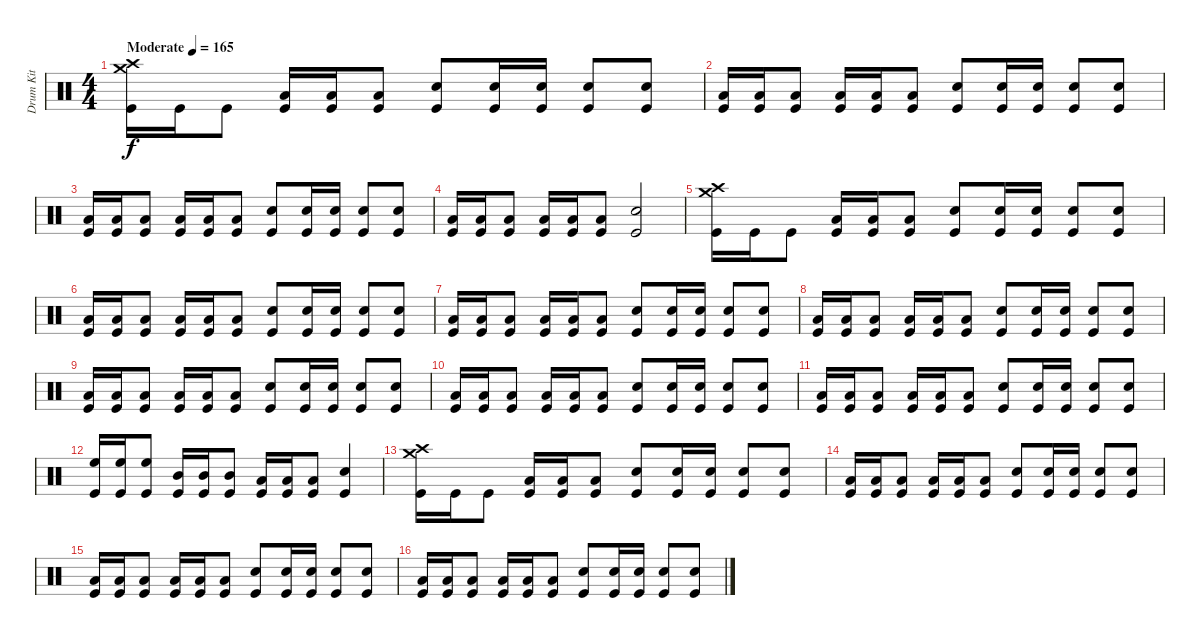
\track ("Drum Kit" "Drum Kit") {instrument percussion}
\staff {score}
\articulation defaults
\ts (4 4)
\tempo (165 "Moderate")
\clef neutral
\ks c
("Crash high (hit)" "Crash medium (hit)" "Kick (hit)").16{dy f} "Kick (hit)".16 "Kick (hit)".8 ("Low Floor Tom (hit)" "Kick (hit)").16 ("Low Floor Tom (hit)" "Kick (hit)").16 ("Low Floor Tom (hit)" "Kick (hit)").8 ("Snare (hit) 2" "Kick (hit)").8 ("Snare (hit) 2" "Kick (hit)").16 ("Snare (hit) 2" "Kick (hit)").16 ("Snare (hit) 2" "Kick (hit)").8 ("Snare (hit) 2" "Kick (hit)").8 |
("Low Floor Tom (hit)" "Kick (hit)").16 ("Low Floor Tom (hit)" "Kick (hit)").16 ("Low Floor Tom (hit)" "Kick (hit)").8 ("Low Floor Tom (hit)" "Kick (hit)").16 ("Low Floor Tom (hit)" "Kick (hit)").16 ("Low Floor Tom (hit)" "Kick (hit)").8 ("Snare (hit) 2" "Kick (hit)").8 ("Snare (hit) 2" "Kick (hit)").16 ("Snare (hit) 2" "Kick (hit)").16 ("Snare (hit) 2" "Kick (hit)").8 ("Snare (hit) 2" "Kick (hit)").8 |
("Low Floor Tom (hit)" "Kick (hit)").16 ("Low Floor Tom (hit)" "Kick (hit)").16 ("Low Floor Tom (hit)" "Kick (hit)").8 ("Low Floor Tom (hit)" "Kick (hit)").16 ("Low Floor Tom (hit)" "Kick (hit)").16 ("Low Floor Tom (hit)" "Kick (hit)").8 ("Snare (hit) 2" "Kick (hit)").8 ("Snare (hit) 2" "Kick (hit)").16 ("Snare (hit) 2" "Kick (hit)").16 ("Snare (hit) 2" "Kick (hit)").8 ("Snare (hit) 2" "Kick (hit)").8 |
("Low Floor Tom (hit)" "Kick (hit)").16 ("Low Floor Tom (hit)" "Kick (hit)").16 ("Low Floor Tom (hit)" "Kick (hit)").8 ("Low Floor Tom (hit)" "Kick (hit)").16 ("Low Floor Tom (hit)" "Kick (hit)").16 ("Low Floor Tom (hit)" "Kick (hit)").8 ("Snare (hit) 2" "Kick (hit)").2 |
("Crash high (hit)" "Crash medium (hit)" "Kick (hit)").16 "Kick (hit)".16 "Kick (hit)".8 ("Low Floor Tom (hit)" "Kick (hit)").16 ("Low Floor Tom (hit)" "Kick (hit)").16 ("Low Floor Tom (hit)" "Kick (hit)").8 ("Snare (hit) 2" "Kick (hit)").8 ("Snare (hit) 2" "Kick (hit)").16 ("Snare (hit) 2" "Kick (hit)").16 ("Snare (hit) 2" "Kick (hit)").8 ("Snare (hit) 2" "Kick (hit)").8 |
("Low Floor Tom (hit)" "Kick (hit)").16 ("Low Floor Tom (hit)" "Kick (hit)").16 ("Low Floor Tom (hit)" "Kick (hit)").8 ("Low Floor Tom (hit)" "Kick (hit)").16 ("Low Floor Tom (hit)" "Kick (hit)").16 ("Low Floor Tom (hit)" "Kick (hit)").8 ("Snare (hit) 2" "Kick (hit)").8 ("Snare (hit) 2" "Kick (hit)").16 ("Snare (hit) 2" "Kick (hit)").16 ("Snare (hit) 2" "Kick (hit)").8 ("Snare (hit) 2" "Kick (hit)").8 |
("Low Floor Tom (hit)" "Kick (hit)").16 ("Low Floor Tom (hit)" "Kick (hit)").16 ("Low Floor Tom (hit)" "Kick (hit)").8 ("Low Floor Tom (hit)" "Kick (hit)").16 ("Low Floor Tom (hit)" "Kick (hit)").16 ("Low Floor Tom (hit)" "Kick (hit)").8 ("Snare (hit) 2" "Kick (hit)").8 ("Snare (hit) 2" "Kick (hit)").16 ("Snare (hit) 2" "Kick (hit)").16 ("Snare (hit) 2" "Kick (hit)").8 ("Snare (hit) 2" "Kick (hit)").8 |
("Low Floor Tom (hit)" "Kick (hit)").16 ("Low Floor Tom (hit)" "Kick (hit)").16 ("Low Floor Tom (hit)" "Kick (hit)").8 ("Low Floor Tom (hit)" "Kick (hit)").16 ("Low Floor Tom (hit)" "Kick (hit)").16 ("Low Floor Tom (hit)" "Kick (hit)").8 ("Snare (hit) 2" "Kick (hit)").8 ("Snare (hit) 2" "Kick (hit)").16 ("Snare (hit) 2" "Kick (hit)").16 ("Snare (hit) 2" "Kick (hit)").8 ("Snare (hit) 2" "Kick (hit)").8 |
("Low Floor Tom (hit)" "Kick (hit)").16 ("Low Floor Tom (hit)" "Kick (hit)").16 ("Low Floor Tom (hit)" "Kick (hit)").8 ("Low Floor Tom (hit)" "Kick (hit)").16 ("Low Floor Tom (hit)" "Kick (hit)").16 ("Low Floor Tom (hit)" "Kick (hit)").8 ("Snare (hit) 2" "Kick (hit)").8 ("Snare (hit) 2" "Kick (hit)").16 ("Snare (hit) 2" "Kick (hit)").16 ("Snare (hit) 2" "Kick (hit)").8 ("Snare (hit) 2" "Kick (hit)").8 |
("Low Floor Tom (hit)" "Kick (hit)").16 ("Low Floor Tom (hit)" "Kick (hit)").16 ("Low Floor Tom (hit)" "Kick (hit)").8 ("Low Floor Tom (hit)" "Kick (hit)").16 ("Low Floor Tom (hit)" "Kick (hit)").16 ("Low Floor Tom (hit)" "Kick (hit)").8 ("Snare (hit) 2" "Kick (hit)").8 ("Snare (hit) 2" "Kick (hit)").16 ("Snare (hit) 2" "Kick (hit)").16 ("Snare (hit) 2" "Kick (hit)").8 ("Snare (hit) 2" "Kick (hit)").8 |
("Low Floor Tom (hit)" "Kick (hit)").16 ("Low Floor Tom (hit)" "Kick (hit)").16 ("Low Floor Tom (hit)" "Kick (hit)").8 ("Low Floor Tom (hit)" "Kick (hit)").16 ("Low Floor Tom (hit)" "Kick (hit)").16 ("Low Floor Tom (hit)" "Kick (hit)").8 ("Snare (hit) 2" "Kick (hit)").8 ("Snare (hit) 2" "Kick (hit)").16 ("Snare (hit) 2" "Kick (hit)").16 ("Snare (hit) 2" "Kick (hit)").8 ("Snare (hit) 2" "Kick (hit)").8 |
("High Floor Tom (hit)" "Kick (hit)").16 ("High Floor Tom (hit)" "Kick (hit)").16 ("High Floor Tom (hit)" "Kick (hit)").8 ("Mid Tom (hit)" "Kick (hit)").16 ("Mid Tom (hit)" "Kick (hit)").16 ("Mid Tom (hit)" "Kick (hit)").8 ("Low Floor Tom (hit)" "Kick (hit)").16 ("Low Floor Tom (hit)" "Kick (hit)").16 ("Low Floor Tom (hit)" "Kick (hit)").8 ("Snare (hit) 2" "Kick (hit)").4 |
("Crash high (hit)" "Crash medium (hit)" "Kick (hit)").16 "Kick (hit)".16 "Kick (hit)".8 ("Low Floor Tom (hit)" "Kick (hit)").16 ("Low Floor Tom (hit)" "Kick (hit)").16 ("Low Floor Tom (hit)" "Kick (hit)").8 ("Snare (hit) 2" "Kick (hit)").8 ("Snare (hit) 2" "Kick (hit)").16 ("Snare (hit) 2" "Kick (hit)").16 ("Snare (hit) 2" "Kick (hit)").8 ("Snare (hit) 2" "Kick (hit)").8 |
("Low Floor Tom (hit)" "Kick (hit)").16 ("Low Floor Tom (hit)" "Kick (hit)").16 ("Low Floor Tom (hit)" "Kick (hit)").8 ("Low Floor Tom (hit)" "Kick (hit)").16 ("Low Floor Tom (hit)" "Kick (hit)").16 ("Low Floor Tom (hit)" "Kick (hit)").8 ("Snare (hit) 2" "Kick (hit)").8 ("Snare (hit) 2" "Kick (hit)").16 ("Snare (hit) 2" "Kick (hit)").16 ("Snare (hit) 2" "Kick (hit)").8 ("Snare (hit) 2" "Kick (hit)").8 |
("Low Floor Tom (hit)" "Kick (hit)").16 ("Low Floor Tom (hit)" "Kick (hit)").16 ("Low Floor Tom (hit)" "Kick (hit)").8 ("Low Floor Tom (hit)" "Kick (hit)").16 ("Low Floor Tom (hit)" "Kick (hit)").16 ("Low Floor Tom (hit)" "Kick (hit)").8 ("Snare (hit) 2" "Kick (hit)").8 ("Snare (hit) 2" "Kick (hit)").16 ("Snare (hit) 2" "Kick (hit)").16 ("Snare (hit) 2" "Kick (hit)").8 ("Snare (hit) 2" "Kick (hit)").8 |
("Low Floor Tom (hit)" "Kick (hit)").16 ("Low Floor Tom (hit)" "Kick (hit)").16 ("Low Floor Tom (hit)" "Kick (hit)").8 ("Low Floor Tom (hit)" "Kick (hit)").16 ("Low Floor Tom (hit)" "Kick (hit)").16 ("Low Floor Tom (hit)" "Kick (hit)").8 ("Snare (hit) 2" "Kick (hit)").8 ("Snare (hit) 2" "Kick (hit)").16 ("Snare (hit) 2" "Kick (hit)").16 ("Snare (hit) 2" "Kick (hit)").8 ("Snare (hit) 2" "Kick (hit)").8
